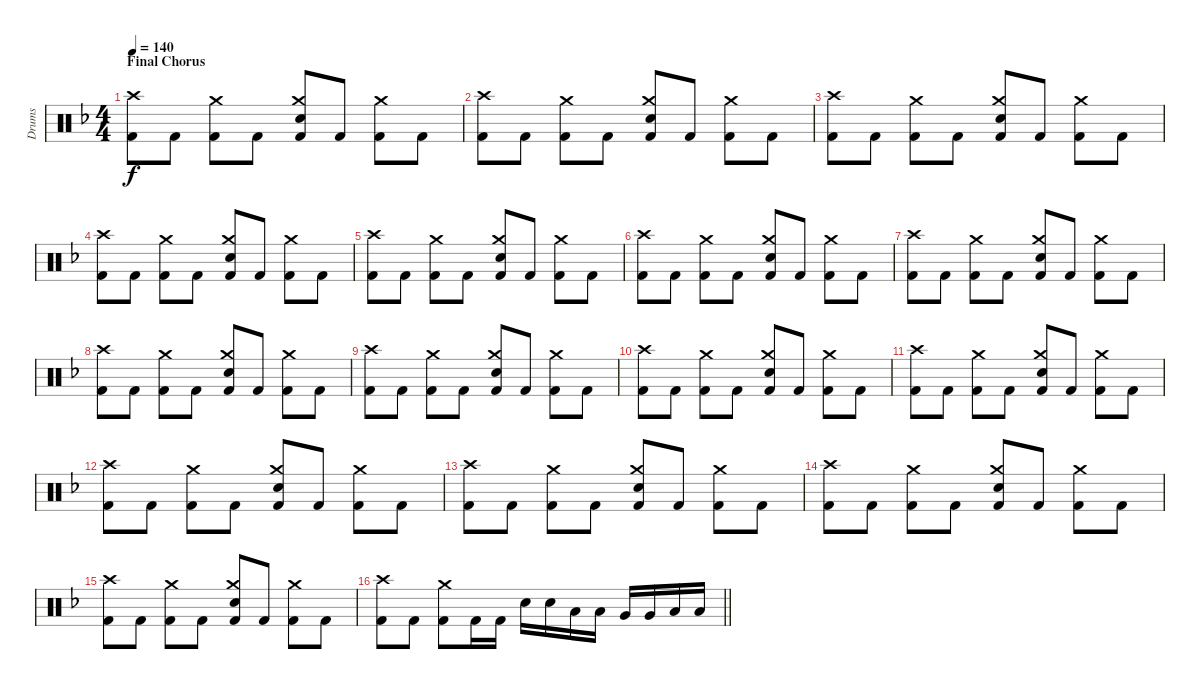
\track ("Drums" "Drums") {instrument percussion}
\staff {score}
\articulation defaults
\ts (4 4)
\section ("" "Final Chorus")
\tempo 140
\clef neutral
\ks dminor
("Crash high (hit)" "Kick (hit) 2").8{dy f} "Kick (hit) 2".8 ("Crash medium (hit)" "Kick (hit) 2").8 "Kick (hit) 2".8 ("Crash medium (hit)" "Snare (hit) 2" "Kick (hit) 2").8 "Kick (hit) 2".8 ("Crash medium (hit)" "Kick (hit) 2").8 "Kick (hit) 2".8 |
("Crash high (hit)" "Kick (hit) 2").8 "Kick (hit) 2".8 ("Crash medium (hit)" "Kick (hit) 2").8 "Kick (hit) 2".8 ("Crash medium (hit)" "Snare (hit) 2" "Kick (hit) 2").8 "Kick (hit) 2".8 ("Crash medium (hit)" "Kick (hit) 2").8 "Kick (hit) 2".8 |
("Crash high (hit)" "Kick (hit) 2").8 "Kick (hit) 2".8 ("Crash medium (hit)" "Kick (hit) 2").8 "Kick (hit) 2".8 ("Crash medium (hit)" "Snare (hit) 2" "Kick (hit) 2").8 "Kick (hit) 2".8 ("Crash medium (hit)" "Kick (hit) 2").8 "Kick (hit) 2".8 |
("Crash high (hit)" "Kick (hit) 2").8 "Kick (hit) 2".8 ("Crash medium (hit)" "Kick (hit) 2").8 "Kick (hit) 2".8 ("Crash medium (hit)" "Snare (hit) 2" "Kick (hit) 2").8 "Kick (hit) 2".8 ("Crash medium (hit)" "Kick (hit) 2").8 "Kick (hit) 2".8 |
("Crash high (hit)" "Kick (hit) 2").8 "Kick (hit) 2".8 ("Crash medium (hit)" "Kick (hit) 2").8 "Kick (hit) 2".8 ("Crash medium (hit)" "Snare (hit) 2" "Kick (hit) 2").8 "Kick (hit) 2".8 ("Crash medium (hit)" "Kick (hit) 2").8 "Kick (hit) 2".8 |
("Crash high (hit)" "Kick (hit) 2").8 "Kick (hit) 2".8 ("Crash medium (hit)" "Kick (hit) 2").8 "Kick (hit) 2".8 ("Crash medium (hit)" "Snare (hit) 2" "Kick (hit) 2").8 "Kick (hit) 2".8 ("Crash medium (hit)" "Kick (hit) 2").8 "Kick (hit) 2".8 |
("Crash high (hit)" "Kick (hit) 2").8 "Kick (hit) 2".8 ("Crash medium (hit)" "Kick (hit) 2").8 "Kick (hit) 2".8 ("Crash medium (hit)" "Snare (hit) 2" "Kick (hit) 2").8 "Kick (hit) 2".8 ("Crash medium (hit)" "Kick (hit) 2").8 "Kick (hit) 2".8 |
("Crash high (hit)" "Kick (hit) 2").8 "Kick (hit) 2".8 ("Crash medium (hit)" "Kick (hit) 2").8 "Kick (hit) 2".8 ("Crash medium (hit)" "Snare (hit) 2" "Kick (hit) 2").8 "Kick (hit) 2".8 ("Crash medium (hit)" "Kick (hit) 2").8 "Kick (hit) 2".8 |
("Crash high (hit)" "Kick (hit) 2").8 "Kick (hit) 2".8 ("Crash medium (hit)" "Kick (hit) 2").8 "Kick (hit) 2".8 ("Crash medium (hit)" "Snare (hit) 2" "Kick (hit) 2").8 "Kick (hit) 2".8 ("Crash medium (hit)" "Kick (hit) 2").8 "Kick (hit) 2".8 |
("Crash high (hit)" "Kick (hit) 2").8 "Kick (hit) 2".8 ("Crash medium (hit)" "Kick (hit) 2").8 "Kick (hit) 2".8 ("Crash medium (hit)" "Snare (hit) 2" "Kick (hit) 2").8 "Kick (hit) 2".8 ("Crash medium (hit)" "Kick (hit) 2").8 "Kick (hit) 2".8 |
("Crash high (hit)" "Kick (hit) 2").8 "Kick (hit) 2".8 ("Crash medium (hit)" "Kick (hit) 2").8 "Kick (hit) 2".8 ("Crash medium (hit)" "Snare (hit) 2" "Kick (hit) 2").8 "Kick (hit) 2".8 ("Crash medium (hit)" "Kick (hit) 2").8 "Kick (hit) 2".8 |
("Crash high (hit)" "Kick (hit) 2").8 "Kick (hit) 2".8 ("Crash medium (hit)" "Kick (hit) 2").8 "Kick (hit) 2".8 ("Crash medium (hit)" "Snare (hit) 2" "Kick (hit) 2").8 "Kick (hit) 2".8 ("Crash medium (hit)" "Kick (hit) 2").8 "Kick (hit) 2".8 |
("Crash high (hit)" "Kick (hit) 2").8 "Kick (hit) 2".8 ("Crash medium (hit)" "Kick (hit) 2").8 "Kick (hit) 2".8 ("Crash medium (hit)" "Snare (hit) 2" "Kick (hit) 2").8 "Kick (hit) 2".8 ("Crash medium (hit)" "Kick (hit) 2").8 "Kick (hit) 2".8 |
("Crash high (hit)" "Kick (hit) 2").8 "Kick (hit) 2".8 ("Crash medium (hit)" "Kick (hit) 2").8 "Kick (hit) 2".8 ("Crash medium (hit)" "Snare (hit) 2" "Kick (hit) 2").8 "Kick (hit) 2".8 ("Crash medium (hit)" "Kick (hit) 2").8 "Kick (hit) 2".8 |
("Crash high (hit)" "Kick (hit) 2").8 "Kick (hit) 2".8 ("Crash medium (hit)" "Kick (hit) 2").8 "Kick (hit) 2".8 ("Crash medium (hit)" "Snare (hit) 2" "Kick (hit) 2").8 "Kick (hit) 2".8 ("Crash medium (hit)" "Kick (hit) 2").8 "Kick (hit) 2".8 |
\barLineRight lightlight
("Crash high (hit)" "Kick (hit) 2").8 "Kick (hit) 2".8 ("Crash medium (hit)" "Kick (hit) 2").8 "Kick (hit) 2".16 "Kick (hit) 2".16 "Snare (hit) 2".16 "Snare (hit) 2".16 "Low Tom (hit)".16 "Low Tom (hit)".16 "Very Low Tom (hit)".16 "Very Low Tom (hit)".16 "Low Floor Tom (hit)".16 "Low Floor Tom (hit)".16
